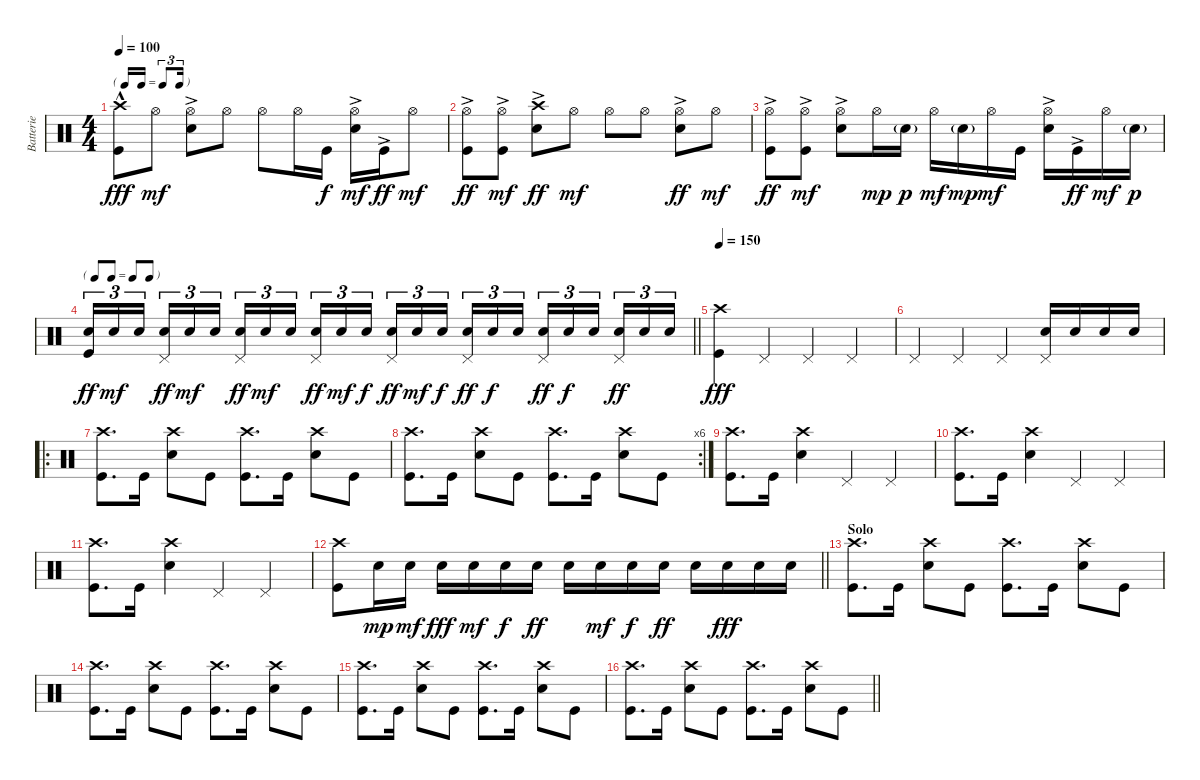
\track ("Batterie" "Batterie") {instrument percussion}
\staff {score}
\articulation defaults
\ts (4 4)
\tf triplet16th
\tempo 100
\clef neutral
\ks c
("Kick (hit)"{hac} "Crash high (hit)"{hac}).8{dy fff} "Hi-Hat (open)".8{dy mf} ("Snare (hit) 2"{ac} "Hi-Hat (open)").8 "Hi-Hat (open)".8 "Hi-Hat (open)".8 "Hi-Hat (open)".16 "Kick (hit)".16{dy f} ("Snare (hit) 2"{ac} "Hi-Hat (open)").16{dy mf} "Kick (hit)"{ac}.16{dy ff} "Hi-Hat (open)".8{dy mf} |
("Hi-Hat (open)" "Kick (hit)"{ac}).8{dy ff} ("Kick (hit)"{ac} "Hi-Hat (open)").8{dy mf} ("Snare (hit) 2"{ac} "Crash high (hit)").8{dy ff} "Hi-Hat (open)".8{dy mf} "Hi-Hat (open)".8 "Hi-Hat (open)".8 ("Hi-Hat (open)" "Snare (hit) 2"{ac}).8{dy ff} "Hi-Hat (open)".8{dy mf} |
("Hi-Hat (open)" "Kick (hit)"{ac}).8{dy ff} ("Kick (hit)"{ac} "Hi-Hat (open)").8{dy mf} ("Snare (hit) 2"{ac} "Hi-Hat (open)").8 "Hi-Hat (open)".16{dy mp} "Snare (hit) 2"{g}.16{dy p} "Hi-Hat (open)".16{dy mf} "Snare (hit) 2"{g}.16{dy mp} "Hi-Hat (open)".16{dy mf} "Kick (hit)".16 ("Snare (hit) 2"{ac} "Hi-Hat (open)").16 "Kick (hit)"{ac}.16{dy ff} "Hi-Hat (open)".16{dy mf} "Snare (hit) 2"{g}.16{dy p} |
\tf none
\barLineRight lightlight
("Snare (hit) 2" "Kick (hit)").16{tu (3 2) dy ff} "Snare (hit) 2".16{tu (3 2) dy mf} "Snare (hit) 2".16{tu (3 2) beam splitsecondary} ("Snare (hit) 2" "Pedal Hi-Hat (hit)").16{tu (3 2) dy ff} "Snare (hit) 2".16{tu (3 2) dy mf} "Snare (hit) 2".16{tu (3 2)} ("Snare (hit) 2" "Pedal Hi-Hat (hit)").16{tu (3 2) dy ff} "Snare (hit) 2".16{tu (3 2) dy mf} "Snare (hit) 2".16{tu (3 2) beam splitsecondary} ("Snare (hit) 2" "Pedal Hi-Hat (hit)").16{tu (3 2) dy ff} "Snare (hit) 2".16{tu (3 2) dy mf} "Snare (hit) 2".16{tu (3 2) dy f} ("Snare (hit) 2" "Pedal Hi-Hat (hit)").16{tu (3 2) dy ff volume 16} "Snare (hit) 2".16{tu (3 2) dy mf} "Snare (hit) 2".16{tu (3 2) dy f beam splitsecondary} ("Snare (hit) 2" "Pedal Hi-Hat (hit)").16{tu (3 2) dy ff} "Snare (hit) 2".16{tu (3 2) dy f} "Snare (hit) 2".16{tu (3 2)} ("Snare (hit) 2" "Pedal Hi-Hat (hit)").16{tu (3 2) dy ff} "Snare (hit) 2".16{tu (3 2) dy f} "Snare (hit) 2".16{tu (3 2) beam splitsecondary} ("Snare (hit) 2" "Pedal Hi-Hat (hit)").16{tu (3 2) dy ff} "Snare (hit) 2".16{tu (3 2)} "Snare (hit) 2".16{tu (3 2)} |
\tempo 150
("Kick (hit)" "Crash high (hit)").4{dy fff} "Pedal Hi-Hat (hit)".4{volume 13} "Pedal Hi-Hat (hit)".4 "Pedal Hi-Hat (hit)".4 |
"Pedal Hi-Hat (hit)".4 "Pedal Hi-Hat (hit)".4 "Pedal Hi-Hat (hit)".4 ("Pedal Hi-Hat (hit)" "Snare (hit) 2").16 "Snare (hit) 2".16 "Snare (hit) 2".16 "Snare (hit) 2".16 |
\ro
("Crash high (hit)" "Kick (hit)").8{d} "Kick (hit)".16 ("Snare (hit) 2" "Crash high (hit)").8 "Kick (hit)".8 ("Crash high (hit)" "Kick (hit)").8{d} "Kick (hit)".16 ("Snare (hit) 2" "Crash high (hit)").8 "Kick (hit)".8 |
\rc 6
("Crash high (hit)" "Kick (hit)").8{d} "Kick (hit)".16 ("Snare (hit) 2" "Crash high (hit)").8 "Kick (hit)".8 ("Crash high (hit)" "Kick (hit)").8{d} "Kick (hit)".16 ("Snare (hit) 2" "Crash high (hit)").8 "Kick (hit)".8 |
("Crash high (hit)" "Kick (hit)").8{d} "Kick (hit)".16 ("Snare (hit) 2" "Crash high (hit)").4 "Pedal Hi-Hat (hit)".4 "Pedal Hi-Hat (hit)".4 |
("Crash high (hit)" "Kick (hit)").8{d} "Kick (hit)".16 ("Snare (hit) 2" "Crash high (hit)").4 "Pedal Hi-Hat (hit)".4 "Pedal Hi-Hat (hit)".4 |
("Crash high (hit)" "Kick (hit)").8{d} "Kick (hit)".16 ("Snare (hit) 2" "Crash high (hit)").4 "Pedal Hi-Hat (hit)".4 "Pedal Hi-Hat (hit)".4 |
\barLineRight lightlight
("Kick (hit)" "Crash high (hit)").8 "Snare (hit) 2".16{dy mp} "Snare (hit) 2".16{dy mf volume 16} "Snare (hit) 2".16{dy fff} "Snare (hit) 2".16{dy mf} "Snare (hit) 2".16{dy f} "Snare (hit) 2".16{dy ff} "Snare (hit) 2".16 "Snare (hit) 2".16{dy mf} "Snare (hit) 2".16{dy f} "Snare (hit) 2".16{dy ff} "Snare (hit) 2".16 "Snare (hit) 2".16{dy fff} "Snare (hit) 2".16 "Snare (hit) 2".16 |
\section ("" "Solo")
("Crash high (hit)" "Kick (hit)").8{d} "Kick (hit)".16 ("Snare (hit) 2" "Crash high (hit)").8 "Kick (hit)".8 ("Crash high (hit)" "Kick (hit)").8{d} "Kick (hit)".16 ("Snare (hit) 2" "Crash high (hit)").8 "Kick (hit)".8 |
("Crash high (hit)" "Kick (hit)").8{d} "Kick (hit)".16 ("Snare (hit) 2" "Crash high (hit)").8 "Kick (hit)".8 ("Crash high (hit)" "Kick (hit)").8{d} "Kick (hit)".16 ("Snare (hit) 2" "Crash high (hit)").8 "Kick (hit)".8 |
("Crash high (hit)" "Kick (hit)").8{d} "Kick (hit)".16 ("Snare (hit) 2" "Crash high (hit)").8 "Kick (hit)".8 ("Crash high (hit)" "Kick (hit)").8{d} "Kick (hit)".16 ("Snare (hit) 2" "Crash high (hit)").8 "Kick (hit)".8 |
\barLineRight lightlight
("Crash high (hit)" "Kick (hit)").8{d} "Kick (hit)".16 ("Snare (hit) 2" "Crash high (hit)").8 "Kick (hit)".8 ("Crash high (hit)" "Kick (hit)").8{d} "Kick (hit)".16 ("Snare (hit) 2" "Crash high (hit)").8 "Kick (hit)".8
